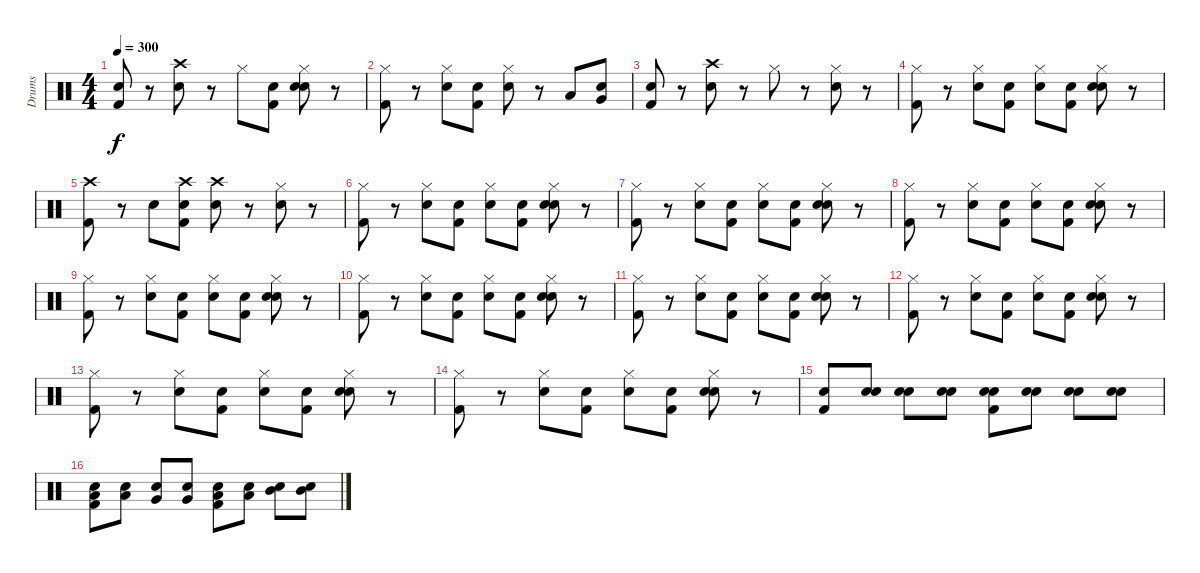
\track ("Drums" "Drums") {instrument percussion}
\staff {score}
\articulation defaults
\ts (4 4)
\tempo 300
\clef neutral
\ks c
("Snare (hit)" "Kick (hit) 2").8{dy f} r.8 ("Electric Snare (hit)" "Crash high (hit)").8 r.8 "Hi-Hat (closed)".8 ("Snare (hit)" "Kick (hit) 2").8 ("Snare (hit)" "Electric Snare (hit)" "Hi-Hat (closed)").8 r.8 |
("Hi-Hat (closed)" "Kick (hit) 2").8 r.8 ("Hi-Hat (closed)" "Electric Snare (hit)").8 ("Snare (hit)" "Kick (hit) 2").8 ("Snare (hit)" "Hi-Hat (closed)").8 r.8 "Low Floor Tom (hit)".8 ("Snare (hit)" "Very Low Tom (hit)").8 |
("Snare (hit)" "Kick (hit) 2").8 r.8 ("Electric Snare (hit)" "Crash high (hit)").8 r.8 "Hi-Hat (closed)".8 r.8 ("Electric Snare (hit)" "Hi-Hat (closed)").8 r.8 |
("Kick (hit) 2" "Hi-Hat (closed)").8 r.8 ("Electric Snare (hit)" "Hi-Hat (closed)").8 ("Snare (hit)" "Kick (hit) 2").8 ("Snare (hit)" "Hi-Hat (closed)").8 ("Snare (hit)" "Kick (hit) 2").8 ("Snare (hit)" "Electric Snare (hit)" "Hi-Hat (closed)").8 r.8 |
("Crash high (hit)" "Kick (hit) 2").8 r.8 "Electric Snare (hit)".8 ("Snare (hit)" "Kick (hit) 2" "Crash high (hit)").8 ("Snare (hit)" "Crash high (hit)").8 r.8 ("Electric Snare (hit)" "Hi-Hat (closed)").8 r.8 |
("Hi-Hat (closed)" "Kick (hit) 2").8 r.8 ("Hi-Hat (closed)" "Electric Snare (hit)").8 ("Snare (hit)" "Kick (hit) 2").8 ("Snare (hit)" "Hi-Hat (closed)").8 ("Snare (hit)" "Kick (hit) 2").8 ("Snare (hit)" "Hi-Hat (closed)" "Electric Snare (hit)").8 r.8 |
("Hi-Hat (closed)" "Kick (hit) 2").8 r.8 ("Hi-Hat (closed)" "Electric Snare (hit)").8 ("Snare (hit)" "Kick (hit) 2").8 ("Snare (hit)" "Hi-Hat (closed)").8 ("Snare (hit)" "Kick (hit) 2").8 ("Snare (hit)" "Hi-Hat (closed)" "Electric Snare (hit)").8 r.8 |
("Hi-Hat (closed)" "Kick (hit) 2").8 r.8 ("Hi-Hat (closed)" "Electric Snare (hit)").8 ("Snare (hit)" "Kick (hit) 2").8 ("Snare (hit)" "Hi-Hat (closed)").8 ("Snare (hit)" "Kick (hit) 2").8 ("Snare (hit)" "Hi-Hat (closed)" "Electric Snare (hit)").8 r.8 |
("Hi-Hat (closed)" "Kick (hit) 2").8 r.8 ("Hi-Hat (closed)" "Electric Snare (hit)").8 ("Snare (hit)" "Kick (hit) 2").8 ("Snare (hit)" "Hi-Hat (closed)").8 ("Snare (hit)" "Kick (hit) 2").8 ("Snare (hit)" "Hi-Hat (closed)" "Electric Snare (hit)").8 r.8 |
("Hi-Hat (closed)" "Kick (hit) 2").8 r.8 ("Hi-Hat (closed)" "Electric Snare (hit)").8 ("Snare (hit)" "Kick (hit) 2").8 ("Snare (hit)" "Hi-Hat (closed)").8 ("Snare (hit)" "Kick (hit) 2").8 ("Snare (hit)" "Hi-Hat (closed)" "Electric Snare (hit)").8 r.8 |
("Hi-Hat (closed)" "Kick (hit) 2").8 r.8 ("Hi-Hat (closed)" "Electric Snare (hit)").8 ("Snare (hit)" "Kick (hit) 2").8 ("Snare (hit)" "Hi-Hat (closed)").8 ("Snare (hit)" "Kick (hit) 2").8 ("Snare (hit)" "Hi-Hat (closed)" "Electric Snare (hit)").8 r.8 |
("Hi-Hat (closed)" "Kick (hit) 2").8 r.8 ("Hi-Hat (closed)" "Electric Snare (hit)").8 ("Snare (hit)" "Kick (hit) 2").8 ("Snare (hit)" "Hi-Hat (closed)").8 ("Snare (hit)" "Kick (hit) 2").8 ("Snare (hit)" "Hi-Hat (closed)" "Electric Snare (hit)").8 r.8 |
("Hi-Hat (closed)" "Kick (hit) 2").8 r.8 ("Hi-Hat (closed)" "Electric Snare (hit)").8 ("Snare (hit)" "Kick (hit) 2").8 ("Snare (hit)" "Hi-Hat (closed)").8 ("Snare (hit)" "Kick (hit) 2").8 ("Snare (hit)" "Hi-Hat (closed)" "Electric Snare (hit)").8 r.8 |
("Hi-Hat (closed)" "Kick (hit) 2").8 r.8 ("Hi-Hat (closed)" "Electric Snare (hit)").8 ("Snare (hit)" "Kick (hit) 2").8 ("Snare (hit)" "Hi-Hat (closed)").8 ("Snare (hit)" "Kick (hit) 2").8 ("Snare (hit)" "Hi-Hat (closed)" "Electric Snare (hit)").8 r.8 |
("Kick (hit) 2" "Electric Snare (hit)").8 ("Snare (hit)" "Electric Snare (hit)").8 ("Snare (hit)" "Electric Snare (hit)").8 ("Snare (hit)" "Electric Snare (hit)").8 ("Snare (hit)" "Kick (hit) 2" "Electric Snare (hit)").8 ("Snare (hit)" "Electric Snare (hit)").8 ("Snare (hit)" "Electric Snare (hit)").8 ("Snare (hit)" "Electric Snare (hit)").8 |
("Snare (hit)" "Kick (hit) 2" "Low Floor Tom (hit)").8 ("Snare (hit)" "Low Floor Tom (hit)").8 ("Snare (hit)" "Very Low Tom (hit)").8 ("Snare (hit)" "Very Low Tom (hit)").8 ("Snare (hit)" "Kick (hit) 2" "Low Tom (hit)").8 ("Snare (hit)" "Low Tom (hit)").8 ("Snare (hit)" "Mid Tom (hit)").8 ("Snare (hit)" "Mid Tom (hit)").8
